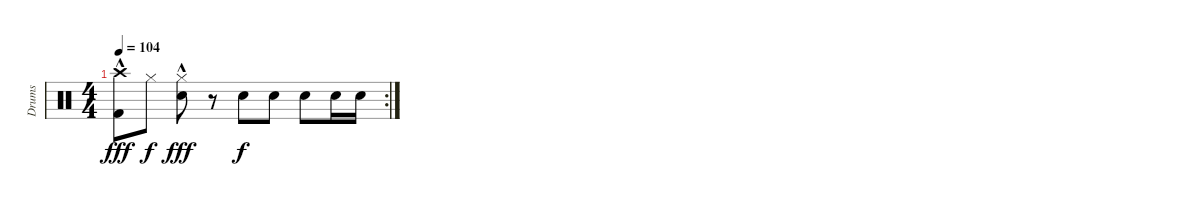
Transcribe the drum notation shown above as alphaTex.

\track ("Drums" "Drums") {instrument percussion}
\staff {score}
\articulation defaults
\rc 2
\ts (4 4)
\tempo 104
\clef neutral
\ks c
("Crash high (hit)"{hac} "Kick (hit) 2").8{dy fff} "Hi-Hat (closed)".8{dy f} ("Hi-Hat (closed)"{hac} "Snare (hit) 2").8{dy fff} r.8 "Snare (hit) 2".8{dy f} "Snare (hit) 2".8 "Snare (hit) 2".8 "Snare (hit) 2".16 "Snare (hit) 2".16
